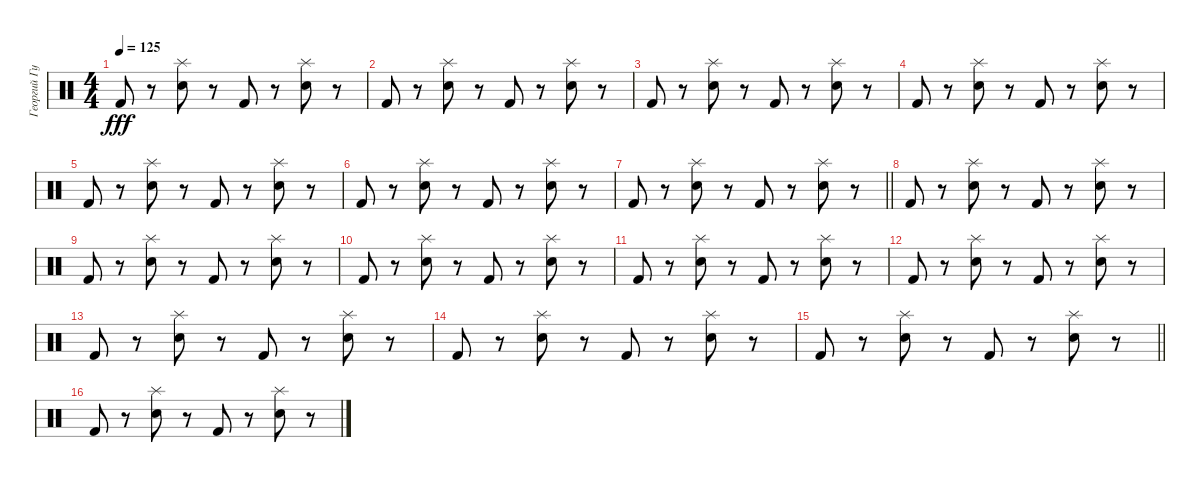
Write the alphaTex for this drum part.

\track ("Георгий Гурьянов" "Георгий Гу") {instrument percussion}
\staff {score}
\articulation defaults
\ts (4 4)
\tempo 125
\clef neutral
\ks c "Kick (hit) 2".8{dy fff}
r.8 ("Snare (hit) 2" "Splash (hit)").8 r.8 "Kick (hit) 2".8 r.8 ("Snare (hit) 2" "Splash (hit)").8 r.8 |
"Kick (hit) 2".8 r.8 ("Snare (hit) 2" "Splash (hit)").8 r.8 "Kick (hit) 2".8 r.8 ("Snare (hit) 2" "Splash (hit)").8 r.8 |
"Kick (hit) 2".8 r.8 ("Snare (hit) 2" "Splash (hit)").8 r.8 "Kick (hit) 2".8 r.8 ("Snare (hit) 2" "Splash (hit)").8 r.8 |
"Kick (hit) 2".8 r.8 ("Snare (hit) 2" "Splash (hit)").8 r.8 "Kick (hit) 2".8 r.8 ("Snare (hit) 2" "Splash (hit)").8 r.8 |
"Kick (hit) 2".8 r.8 ("Snare (hit) 2" "Splash (hit)").8 r.8 "Kick (hit) 2".8 r.8 ("Snare (hit) 2" "Splash (hit)").8 r.8 |
"Kick (hit) 2".8 r.8 ("Snare (hit) 2" "Splash (hit)").8 r.8 "Kick (hit) 2".8 r.8 ("Snare (hit) 2" "Splash (hit)").8 r.8 |
\barLineRight lightlight "Kick (hit) 2".8
r.8 ("Snare (hit) 2" "Splash (hit)").8 r.8 "Kick (hit) 2".8 r.8 ("Snare (hit) 2" "Splash (hit)").8 r.8 |
"Kick (hit) 2".8 r.8 ("Snare (hit) 2" "Splash (hit)").8 r.8 "Kick (hit) 2".8 r.8 ("Snare (hit) 2" "Splash (hit)").8 r.8 |
"Kick (hit) 2".8 r.8 ("Snare (hit) 2" "Splash (hit)").8 r.8 "Kick (hit) 2".8 r.8 ("Snare (hit) 2" "Splash (hit)").8 r.8 |
"Kick (hit) 2".8 r.8 ("Snare (hit) 2" "Splash (hit)").8 r.8 "Kick (hit) 2".8 r.8 ("Snare (hit) 2" "Splash (hit)").8 r.8 |
"Kick (hit) 2".8 r.8 ("Snare (hit) 2" "Splash (hit)").8 r.8 "Kick (hit) 2".8 r.8 ("Snare (hit) 2" "Splash (hit)").8 r.8 |
"Kick (hit) 2".8 r.8 ("Snare (hit) 2" "Splash (hit)").8 r.8 "Kick (hit) 2".8 r.8 ("Snare (hit) 2" "Splash (hit)").8 r.8 |
"Kick (hit) 2".8 r.8 ("Snare (hit) 2" "Splash (hit)").8 r.8 "Kick (hit) 2".8 r.8 ("Snare (hit) 2" "Splash (hit)").8 r.8 |
"Kick (hit) 2".8 r.8 ("Snare (hit) 2" "Splash (hit)").8 r.8 "Kick (hit) 2".8 r.8 ("Snare (hit) 2" "Splash (hit)").8 r.8 |
\barLineRight lightlight "Kick (hit) 2".8
r.8 ("Snare (hit) 2" "Splash (hit)").8 r.8 "Kick (hit) 2".8 r.8 ("Snare (hit) 2" "Splash (hit)").8 r.8 |
"Kick (hit) 2".8 r.8 ("Snare (hit) 2" "Splash (hit)").8 r.8 "Kick (hit) 2".8 r.8 ("Snare (hit) 2" "Splash (hit)").8 r.8
